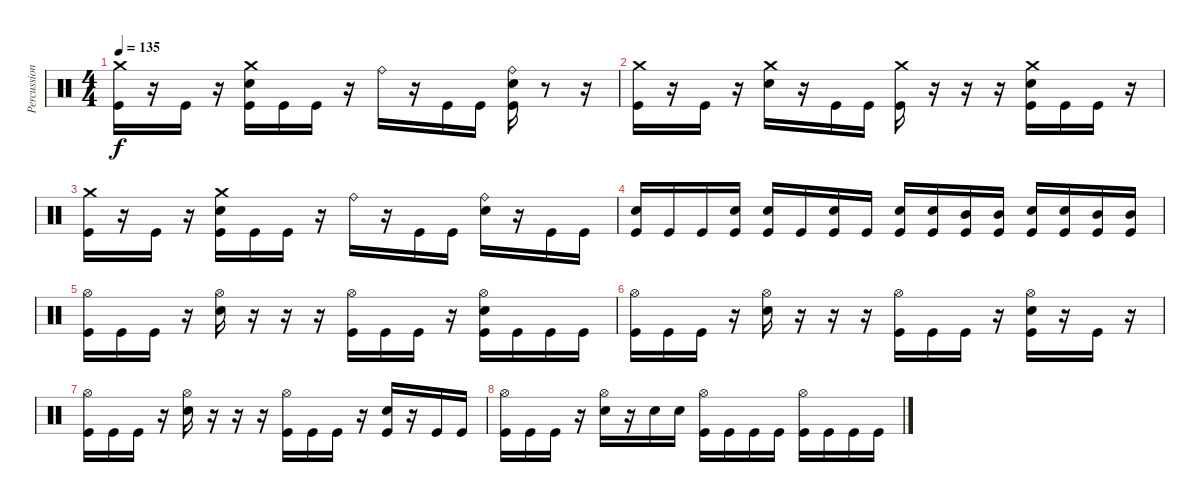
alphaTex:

\track ("Percussion" "Percussion") {instrument percussion}
\staff {score}
\articulation defaults
\ts (4 4)
\tempo 135
\clef neutral
\ks c
("Crash medium (hit)" "Kick (hit)").16{dy f} r.16 "Kick (hit)".16 r.16 ("Crash medium (hit)" "Electric Snare (hit)" "Kick (hit)").16 "Kick (hit)".16 "Kick (hit)".16 r.16 "Ride (bell)".16 r.16 "Kick (hit)".16 "Kick (hit)".16 ("Ride (bell)" "Electric Snare (hit)" "Kick (hit)").16 r.8 r.16 |
("Crash medium (hit)" "Kick (hit)").16 r.16 "Kick (hit)".16 r.16 ("Crash medium (hit)" "Electric Snare (hit)").16 r.16 "Kick (hit)".16 "Kick (hit)".16 ("Crash medium (hit)" "Kick (hit)").16 r.16 r.16 r.16 ("Crash medium (hit)" "Electric Snare (hit)" "Kick (hit)").16 "Kick (hit)".16 "Kick (hit)".16 r.16 |
("Crash medium (hit)" "Kick (hit)").16 r.16 "Kick (hit)".16 r.16 ("Crash medium (hit)" "Electric Snare (hit)" "Kick (hit)").16 "Kick (hit)".16 "Kick (hit)".16 r.16 "Ride (bell)".16 r.16 "Kick (hit)".16 "Kick (hit)".16 ("Ride (bell)" "Electric Snare (hit)").16 r.16 "Kick (hit)".16 "Kick (hit)".16 |
("Electric Snare (hit)" "Kick (hit)").16 "Kick (hit)".16 "Kick (hit)".16 ("Electric Snare (hit)" "Kick (hit)").16 ("Electric Snare (hit)" "Kick (hit)").16 "Kick (hit)".16 ("Electric Snare (hit)" "Kick (hit)").16 "Kick (hit)".16 ("Electric Snare (hit)" "Kick (hit)").16 ("Electric Snare (hit)" "Kick (hit)").16 ("Mid Tom (hit)" "Kick (hit)").16 ("Mid Tom (hit)" "Kick (hit)").16 ("Electric Snare (hit)" "Kick (hit)").16 ("Electric Snare (hit)" "Kick (hit)").16 ("Mid Tom (hit)" "Kick (hit)").16 ("Mid Tom (hit)" "Kick (hit)").16 |
("Hi-Hat (open)" "Kick (hit)").16 "Kick (hit)".16 "Kick (hit)".16 r.16 ("Hi-Hat (open)" "Electric Snare (hit)").16 r.16 r.16 r.16 ("Hi-Hat (open)" "Kick (hit)").16 "Kick (hit)".16 "Kick (hit)".16 r.16 ("Hi-Hat (open)" "Electric Snare (hit)" "Kick (hit)").16 "Kick (hit)".16 "Kick (hit)".16 "Kick (hit)".16 |
("Hi-Hat (open)" "Kick (hit)").16 "Kick (hit)".16 "Kick (hit)".16 r.16 ("Hi-Hat (open)" "Electric Snare (hit)").16 r.16 r.16 r.16 ("Hi-Hat (open)" "Kick (hit)").16 "Kick (hit)".16 "Kick (hit)".16 r.16 ("Hi-Hat (open)" "Electric Snare (hit)" "Kick (hit)").16 r.16 "Kick (hit)".16 r.16 |
("Hi-Hat (open)" "Kick (hit)").16 "Kick (hit)".16 "Kick (hit)".16 r.16 ("Hi-Hat (open)" "Electric Snare (hit)").16 r.16 r.16 r.16 ("Hi-Hat (open)" "Kick (hit)").16 "Kick (hit)".16 "Kick (hit)".16 r.16 ("Kick (hit)" "Electric Snare (hit)").16 r.16 "Kick (hit)".16 "Kick (hit)".16 |
("Hi-Hat (open)" "Kick (hit)").16 "Kick (hit)".16 "Kick (hit)".16 r.16 ("Hi-Hat (open)" "Electric Snare (hit)").16 r.16 "Electric Snare (hit)".16 "Electric Snare (hit)".16 ("Hi-Hat (open)" "Kick (hit)").16 "Kick (hit)".16 "Kick (hit)".16 "Kick (hit)".16 ("Hi-Hat (open)" "Kick (hit)").16 "Kick (hit)".16 "Kick (hit)".16 "Kick (hit)".16
